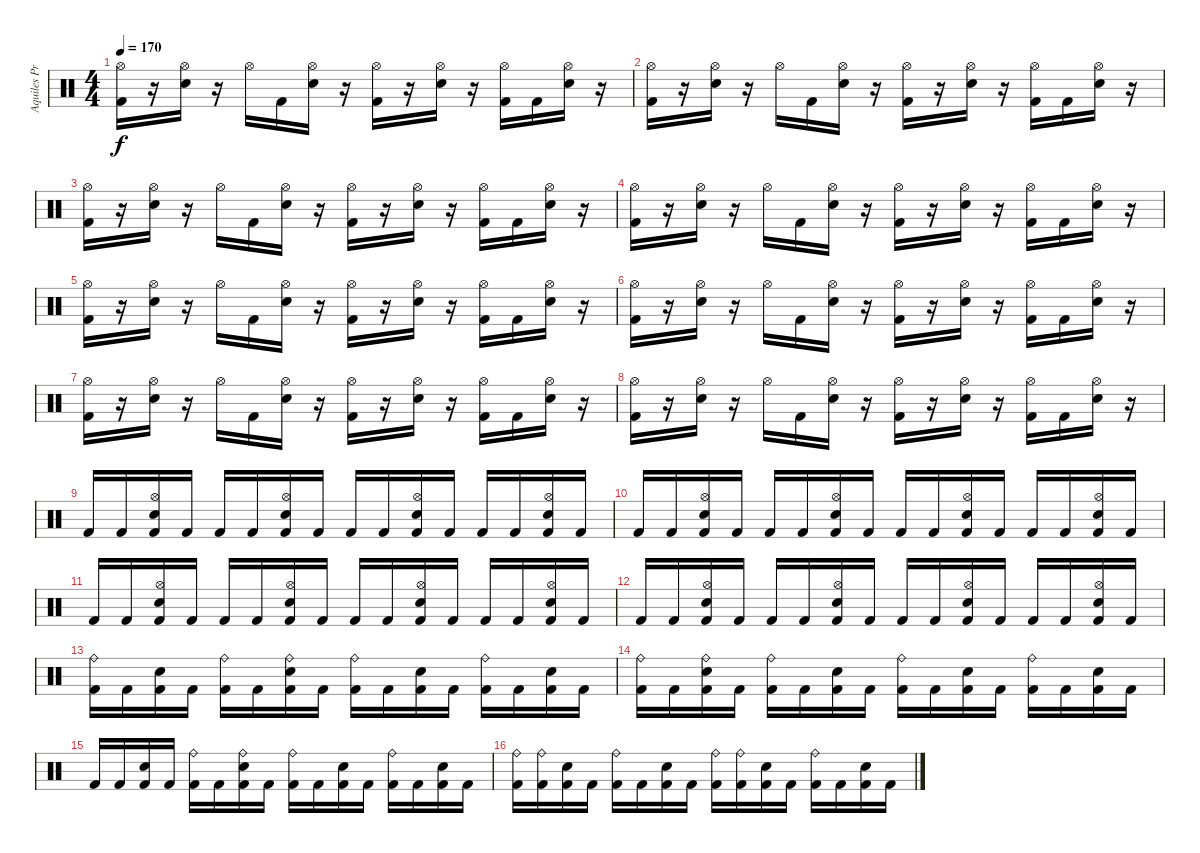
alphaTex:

\track ("Aquiles Priester" "Aquiles Pr") {instrument percussion}
\staff {score}
\articulation defaults
\ts (4 4)
\tempo 170
\clef neutral
\ks c
("Kick (hit) 2" "Hi-Hat (open)").16{dy f} r.16 ("Snare (hit) 2" "Hi-Hat (open)").16 r.16 "Hi-Hat (open)".16 "Kick (hit) 2".16 ("Snare (hit) 2" "Hi-Hat (open)").16 r.16 ("Kick (hit) 2" "Hi-Hat (open)").16 r.16 ("Snare (hit) 2" "Hi-Hat (open)").16 r.16 ("Kick (hit) 2" "Hi-Hat (open)").16 "Kick (hit) 2".16 ("Snare (hit) 2" "Hi-Hat (open)").16 r.16 |
("Kick (hit) 2" "Hi-Hat (open)").16 r.16 ("Snare (hit) 2" "Hi-Hat (open)").16 r.16 "Hi-Hat (open)".16 "Kick (hit) 2".16 ("Snare (hit) 2" "Hi-Hat (open)").16 r.16 ("Kick (hit) 2" "Hi-Hat (open)").16 r.16 ("Snare (hit) 2" "Hi-Hat (open)").16 r.16 ("Kick (hit) 2" "Hi-Hat (open)").16 "Kick (hit) 2".16 ("Snare (hit) 2" "Hi-Hat (open)").16 r.16 |
("Kick (hit) 2" "Hi-Hat (open)").16 r.16 ("Snare (hit) 2" "Hi-Hat (open)").16 r.16 "Hi-Hat (open)".16 "Kick (hit) 2".16 ("Snare (hit) 2" "Hi-Hat (open)").16 r.16 ("Kick (hit) 2" "Hi-Hat (open)").16 r.16 ("Snare (hit) 2" "Hi-Hat (open)").16 r.16 ("Kick (hit) 2" "Hi-Hat (open)").16 "Kick (hit) 2".16 ("Snare (hit) 2" "Hi-Hat (open)").16 r.16 |
("Kick (hit) 2" "Hi-Hat (open)").16 r.16 ("Snare (hit) 2" "Hi-Hat (open)").16 r.16 "Hi-Hat (open)".16 "Kick (hit) 2".16 ("Snare (hit) 2" "Hi-Hat (open)").16 r.16 ("Kick (hit) 2" "Hi-Hat (open)").16 r.16 ("Snare (hit) 2" "Hi-Hat (open)").16 r.16 ("Kick (hit) 2" "Hi-Hat (open)").16 "Kick (hit) 2".16 ("Snare (hit) 2" "Hi-Hat (open)").16 r.16 |
("Kick (hit) 2" "Hi-Hat (open)").16 r.16 ("Snare (hit) 2" "Hi-Hat (open)").16 r.16 "Hi-Hat (open)".16 "Kick (hit) 2".16 ("Snare (hit) 2" "Hi-Hat (open)").16 r.16 ("Kick (hit) 2" "Hi-Hat (open)").16 r.16 ("Snare (hit) 2" "Hi-Hat (open)").16 r.16 ("Kick (hit) 2" "Hi-Hat (open)").16 "Kick (hit) 2".16 ("Snare (hit) 2" "Hi-Hat (open)").16 r.16 |
("Kick (hit) 2" "Hi-Hat (open)").16 r.16 ("Snare (hit) 2" "Hi-Hat (open)").16 r.16 "Hi-Hat (open)".16 "Kick (hit) 2".16 ("Snare (hit) 2" "Hi-Hat (open)").16 r.16 ("Kick (hit) 2" "Hi-Hat (open)").16 r.16 ("Snare (hit) 2" "Hi-Hat (open)").16 r.16 ("Kick (hit) 2" "Hi-Hat (open)").16 "Kick (hit) 2".16 ("Snare (hit) 2" "Hi-Hat (open)").16 r.16 |
("Kick (hit) 2" "Hi-Hat (open)").16 r.16 ("Snare (hit) 2" "Hi-Hat (open)").16 r.16 "Hi-Hat (open)".16 "Kick (hit) 2".16 ("Snare (hit) 2" "Hi-Hat (open)").16 r.16 ("Kick (hit) 2" "Hi-Hat (open)").16 r.16 ("Snare (hit) 2" "Hi-Hat (open)").16 r.16 ("Kick (hit) 2" "Hi-Hat (open)").16 "Kick (hit) 2".16 ("Snare (hit) 2" "Hi-Hat (open)").16 r.16 |
("Kick (hit) 2" "Hi-Hat (open)").16 r.16 ("Snare (hit) 2" "Hi-Hat (open)").16 r.16 "Hi-Hat (open)".16 "Kick (hit) 2".16 ("Snare (hit) 2" "Hi-Hat (open)").16 r.16 ("Kick (hit) 2" "Hi-Hat (open)").16 r.16 ("Snare (hit) 2" "Hi-Hat (open)").16 r.16 ("Kick (hit) 2" "Hi-Hat (open)").16 "Kick (hit) 2".16 ("Snare (hit) 2" "Hi-Hat (open)").16 r.16 |
"Kick (hit) 2".16 "Kick (hit) 2".16 ("Kick (hit) 2" "Snare (hit) 2" "Hi-Hat (open)").16 "Kick (hit) 2".16 "Kick (hit) 2".16 "Kick (hit) 2".16 ("Kick (hit) 2" "Snare (hit) 2" "Hi-Hat (open)").16 "Kick (hit) 2".16 "Kick (hit) 2".16 "Kick (hit) 2".16 ("Kick (hit) 2" "Snare (hit) 2" "Hi-Hat (open)").16 "Kick (hit) 2".16 "Kick (hit) 2".16 "Kick (hit) 2".16 ("Kick (hit) 2" "Snare (hit) 2" "Hi-Hat (open)").16 "Kick (hit) 2".16 |
"Kick (hit) 2".16 "Kick (hit) 2".16 ("Kick (hit) 2" "Snare (hit) 2" "Hi-Hat (open)").16 "Kick (hit) 2".16 "Kick (hit) 2".16 "Kick (hit) 2".16 ("Kick (hit) 2" "Snare (hit) 2" "Hi-Hat (open)").16 "Kick (hit) 2".16 "Kick (hit) 2".16 "Kick (hit) 2".16 ("Kick (hit) 2" "Snare (hit) 2" "Hi-Hat (open)").16 "Kick (hit) 2".16 "Kick (hit) 2".16 "Kick (hit) 2".16 ("Kick (hit) 2" "Snare (hit) 2" "Hi-Hat (open)").16 "Kick (hit) 2".16 |
"Kick (hit) 2".16 "Kick (hit) 2".16 ("Kick (hit) 2" "Snare (hit) 2" "Hi-Hat (open)").16 "Kick (hit) 2".16 "Kick (hit) 2".16 "Kick (hit) 2".16 ("Kick (hit) 2" "Snare (hit) 2" "Hi-Hat (open)").16 "Kick (hit) 2".16 "Kick (hit) 2".16 "Kick (hit) 2".16 ("Kick (hit) 2" "Snare (hit) 2" "Hi-Hat (open)").16 "Kick (hit) 2".16 "Kick (hit) 2".16 "Kick (hit) 2".16 ("Kick (hit) 2" "Snare (hit) 2" "Hi-Hat (open)").16 "Kick (hit) 2".16 |
"Kick (hit) 2".16 "Kick (hit) 2".16 ("Kick (hit) 2" "Snare (hit) 2" "Hi-Hat (open)").16 "Kick (hit) 2".16 "Kick (hit) 2".16 "Kick (hit) 2".16 ("Kick (hit) 2" "Snare (hit) 2" "Hi-Hat (open)").16 "Kick (hit) 2".16 "Kick (hit) 2".16 "Kick (hit) 2".16 ("Kick (hit) 2" "Snare (hit) 2" "Hi-Hat (open)").16 "Kick (hit) 2".16 "Kick (hit) 2".16 "Kick (hit) 2".16 ("Kick (hit) 2" "Snare (hit) 2" "Hi-Hat (open)").16 "Kick (hit) 2".16 |
("Kick (hit) 2" "Ride (bell)").16 "Kick (hit) 2".16 ("Kick (hit) 2" "Snare (hit) 2").16 "Kick (hit) 2".16 ("Kick (hit) 2" "Ride (bell)").16 "Kick (hit) 2".16 ("Kick (hit) 2" "Snare (hit) 2" "Ride (bell)").16 "Kick (hit) 2".16 ("Kick (hit) 2" "Ride (bell)").16 "Kick (hit) 2".16 ("Kick (hit) 2" "Snare (hit) 2").16 "Kick (hit) 2".16 ("Kick (hit) 2" "Ride (bell)").16 "Kick (hit) 2".16 ("Kick (hit) 2" "Snare (hit) 2").16 "Kick (hit) 2".16 |
("Kick (hit) 2" "Ride (bell)").16 "Kick (hit) 2".16 ("Kick (hit) 2" "Snare (hit) 2" "Ride (bell)").16 "Kick (hit) 2".16 ("Kick (hit) 2" "Ride (bell)").16 "Kick (hit) 2".16 ("Kick (hit) 2" "Snare (hit) 2").16 "Kick (hit) 2".16 ("Kick (hit) 2" "Ride (bell)").16 "Kick (hit) 2".16 ("Kick (hit) 2" "Snare (hit) 2").16 "Kick (hit) 2".16 ("Kick (hit) 2" "Ride (bell)").16 "Kick (hit) 2".16 ("Kick (hit) 2" "Snare (hit) 2").16 "Kick (hit) 2".16 |
"Kick (hit) 2".16 "Kick (hit) 2".16 ("Kick (hit) 2" "Snare (hit) 2").16 "Kick (hit) 2".16 ("Kick (hit) 2" "Ride (bell)").16 "Kick (hit) 2".16 ("Kick (hit) 2" "Snare (hit) 2" "Ride (bell)").16 "Kick (hit) 2".16 ("Kick (hit) 2" "Ride (bell)").16 "Kick (hit) 2".16 ("Kick (hit) 2" "Snare (hit) 2").16 "Kick (hit) 2".16 ("Kick (hit) 2" "Ride (bell)").16 "Kick (hit) 2".16 ("Kick (hit) 2" "Snare (hit) 2").16 "Kick (hit) 2".16 |
("Kick (hit) 2" "Ride (bell)").16 ("Kick (hit) 2" "Ride (bell)").16 ("Kick (hit) 2" "Snare (hit) 2").16 "Kick (hit) 2".16 ("Kick (hit) 2" "Ride (bell)").16 "Kick (hit) 2".16 ("Kick (hit) 2" "Snare (hit) 2").16 "Kick (hit) 2".16 ("Kick (hit) 2" "Ride (bell)").16 ("Kick (hit) 2" "Ride (bell)").16 ("Kick (hit) 2" "Snare (hit) 2").16 "Kick (hit) 2".16 ("Kick (hit) 2" "Ride (bell)").16 "Kick (hit) 2".16 ("Kick (hit) 2" "Snare (hit) 2").16 "Kick (hit) 2".16
